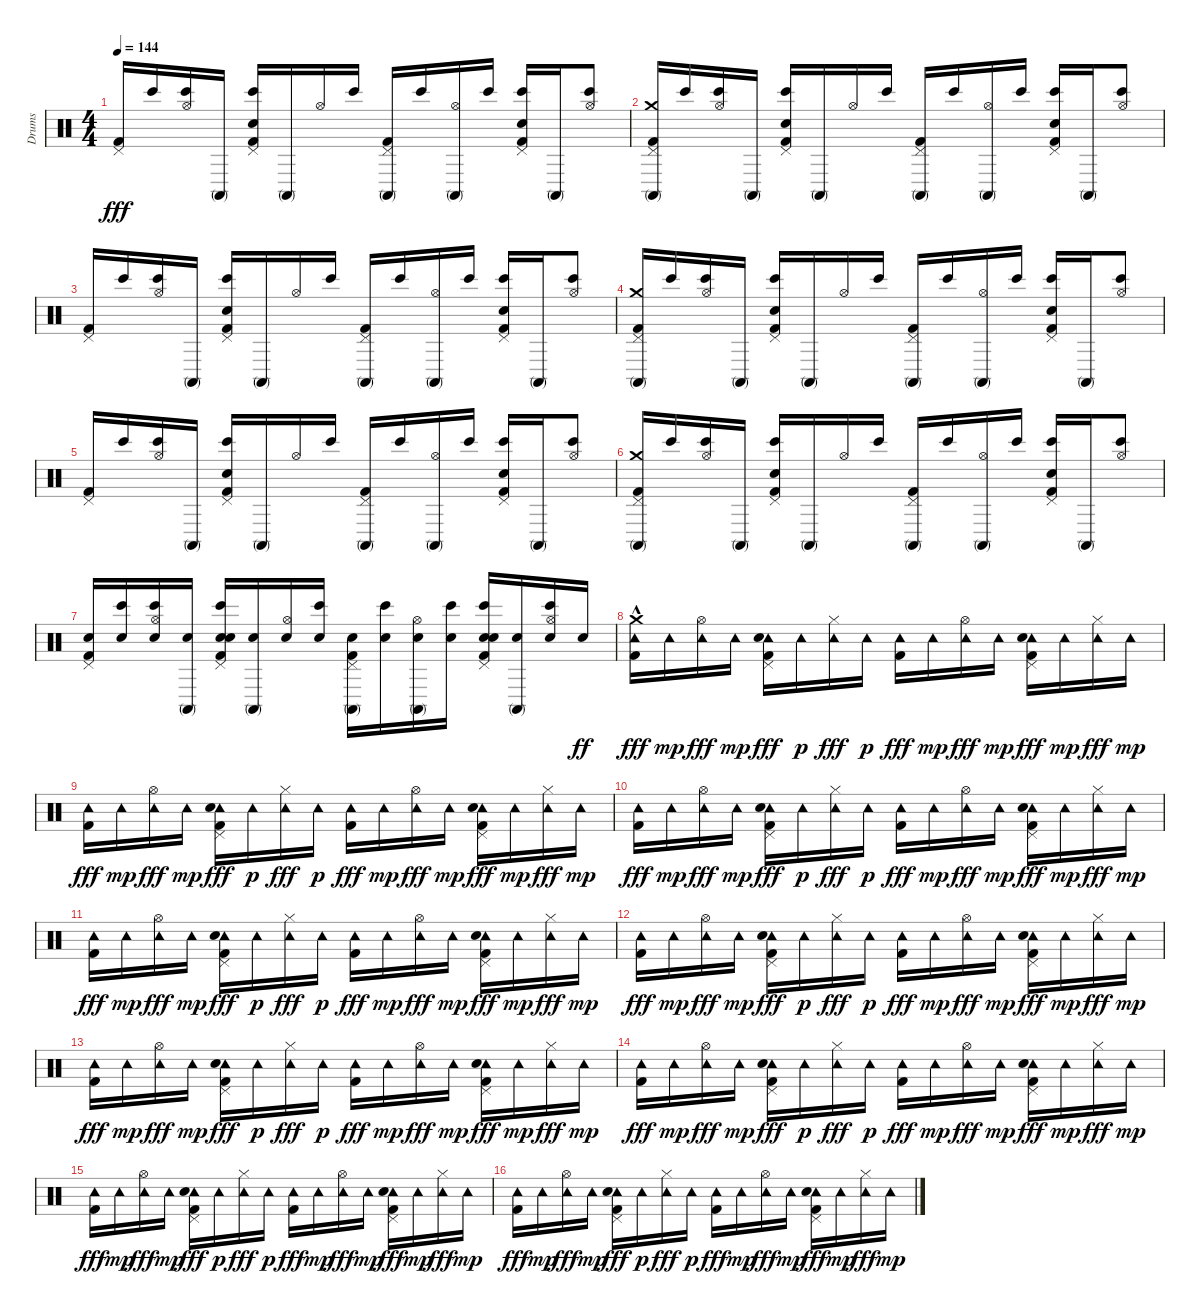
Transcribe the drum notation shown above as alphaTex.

\track ("Drums" "Drums") {instrument percussion}
\staff {score}
\articulation defaults
\ts (4 4)
\tempo 144
\clef neutral
\ks c
("Pedal Hi-Hat (hit)" "Kick (hit) 2").16{dy fff} "Bongo High (hit)".16 ("Hi-Hat (open)" "Bongo High (hit)").16 "Conga high (mute)".16 ("Bongo High (hit)" "Pedal Hi-Hat (hit)" "Kick (hit) 2" "Hand Clap (hit)").16 "Conga high (mute)".16 "Hi-Hat (open)".16 "Bongo High (hit)".16 ("Pedal Hi-Hat (hit)" "Conga high (mute)" "Kick (hit) 2").16 "Bongo High (hit)".16 ("Hi-Hat (open)" "Conga high (mute)").16 "Bongo High (hit)".16 ("Pedal Hi-Hat (hit)" "Bongo High (hit)" "Kick (hit) 2" "Hand Clap (hit)").16 "Conga high (mute)".16 ("Hi-Hat (open)" "Bongo High (hit)").8 |
("Pedal Hi-Hat (hit)" "Conga high (mute)" "Crash medium (hit)" "Kick (hit) 2").16 "Bongo High (hit)".16 ("Bongo High (hit)" "Hi-Hat (open)").16 "Conga high (mute)".16 ("Pedal Hi-Hat (hit)" "Bongo High (hit)" "Kick (hit) 2" "Hand Clap (hit)").16 "Conga high (mute)".16 "Hi-Hat (open)".16 "Bongo High (hit)".16 ("Pedal Hi-Hat (hit)" "Conga high (mute)" "Kick (hit) 2").16 "Bongo High (hit)".16 ("Hi-Hat (open)" "Conga high (mute)").16 "Bongo High (hit)".16 ("Pedal Hi-Hat (hit)" "Bongo High (hit)" "Kick (hit) 2" "Hand Clap (hit)").16 "Conga high (mute)".16 ("Hi-Hat (open)" "Bongo High (hit)").8 |
("Pedal Hi-Hat (hit)" "Kick (hit) 2").16 "Bongo High (hit)".16 ("Hi-Hat (open)" "Bongo High (hit)").16 "Conga high (mute)".16 ("Bongo High (hit)" "Pedal Hi-Hat (hit)" "Kick (hit) 2" "Hand Clap (hit)").16 "Conga high (mute)".16 "Hi-Hat (open)".16 "Bongo High (hit)".16 ("Pedal Hi-Hat (hit)" "Conga high (mute)" "Kick (hit) 2").16 "Bongo High (hit)".16 ("Hi-Hat (open)" "Conga high (mute)").16 "Bongo High (hit)".16 ("Pedal Hi-Hat (hit)" "Bongo High (hit)" "Kick (hit) 2" "Hand Clap (hit)").16 "Conga high (mute)".16 ("Hi-Hat (open)" "Bongo High (hit)").8 |
("Pedal Hi-Hat (hit)" "Conga high (mute)" "Crash medium (hit)" "Kick (hit) 2").16 "Bongo High (hit)".16 ("Bongo High (hit)" "Hi-Hat (open)").16 "Conga high (mute)".16 ("Pedal Hi-Hat (hit)" "Bongo High (hit)" "Kick (hit) 2" "Hand Clap (hit)").16 "Conga high (mute)".16 "Hi-Hat (open)".16 "Bongo High (hit)".16 ("Pedal Hi-Hat (hit)" "Conga high (mute)" "Kick (hit) 2").16 "Bongo High (hit)".16 ("Hi-Hat (open)" "Conga high (mute)").16 "Bongo High (hit)".16 ("Pedal Hi-Hat (hit)" "Bongo High (hit)" "Kick (hit) 2" "Hand Clap (hit)").16 "Conga high (mute)".16 ("Hi-Hat (open)" "Bongo High (hit)").8 |
("Pedal Hi-Hat (hit)" "Kick (hit) 2").16 "Bongo High (hit)".16 ("Hi-Hat (open)" "Bongo High (hit)").16 "Conga high (mute)".16 ("Bongo High (hit)" "Pedal Hi-Hat (hit)" "Kick (hit) 2" "Hand Clap (hit)").16 "Conga high (mute)".16 "Hi-Hat (open)".16 "Bongo High (hit)".16 ("Pedal Hi-Hat (hit)" "Conga high (mute)" "Kick (hit) 2").16 "Bongo High (hit)".16 ("Hi-Hat (open)" "Conga high (mute)").16 "Bongo High (hit)".16 ("Pedal Hi-Hat (hit)" "Bongo High (hit)" "Kick (hit) 2" "Hand Clap (hit)").16 "Conga high (mute)".16 ("Hi-Hat (open)" "Bongo High (hit)").8 |
("Pedal Hi-Hat (hit)" "Conga high (mute)" "Crash medium (hit)" "Kick (hit) 2").16 "Bongo High (hit)".16 ("Bongo High (hit)" "Hi-Hat (open)").16 "Conga high (mute)".16 ("Pedal Hi-Hat (hit)" "Bongo High (hit)" "Kick (hit) 2" "Hand Clap (hit)").16 "Conga high (mute)".16 "Hi-Hat (open)".16 "Bongo High (hit)".16 ("Pedal Hi-Hat (hit)" "Conga high (mute)" "Kick (hit) 2").16 "Bongo High (hit)".16 ("Hi-Hat (open)" "Conga high (mute)").16 "Bongo High (hit)".16 ("Pedal Hi-Hat (hit)" "Bongo High (hit)" "Kick (hit) 2" "Hand Clap (hit)").16 "Conga high (mute)".16 ("Hi-Hat (open)" "Bongo High (hit)").8 |
("Electric Snare (hit)" "Pedal Hi-Hat (hit)" "Kick (hit) 2").16 ("Electric Snare (hit)" "Bongo High (hit)").16 ("Electric Snare (hit)" "Hi-Hat (open)" "Bongo High (hit)").16 ("Electric Snare (hit)" "Conga high (mute)").16 ("Electric Snare (hit)" "Bongo High (hit)" "Pedal Hi-Hat (hit)" "Kick (hit) 2" "Hand Clap (hit)").16 ("Electric Snare (hit)" "Conga high (mute)").16 ("Electric Snare (hit)" "Hi-Hat (open)").16 ("Electric Snare (hit)" "Bongo High (hit)").16 ("Electric Snare (hit)" "Pedal Hi-Hat (hit)" "Conga high (mute)" "Kick (hit) 2").16 ("Electric Snare (hit)" "Bongo High (hit)").16 ("Electric Snare (hit)" "Hi-Hat (open)" "Conga high (mute)").16 ("Electric Snare (hit)" "Bongo High (hit)").16 ("Electric Snare (hit)" "Pedal Hi-Hat (hit)" "Bongo High (hit)" "Kick (hit) 2" "Hand Clap (hit)").16 ("Electric Snare (hit)" "Conga high (mute)").16 ("Electric Snare (hit)" "Hi-Hat (open)" "Bongo High (hit)").16 "Electric Snare (hit)".16{dy ff} |
("Crash medium (hit)"{hac} "Tambourine (hit)" "Kick (hit) 2").16{dy fff} "Tambourine (hit)".16{dy mp} ("Tambourine (hit)" "Hi-Hat (open)").16{dy fff} "Tambourine (hit)".16{dy mp} ("Tambourine (hit)" "Pedal Hi-Hat (hit)" "Kick (hit) 2" "Hand Clap (hit)").16{dy fff} "Tambourine (hit)".16{dy p} ("Tambourine (hit)" "Hi-Hat (closed)").16{dy fff} "Tambourine (hit)".16{dy p} ("Tambourine (hit)" "Kick (hit) 2").16{dy fff} "Tambourine (hit)".16{dy mp} ("Tambourine (hit)" "Hi-Hat (open)").16{dy fff} "Tambourine (hit)".16{dy mp} ("Tambourine (hit)" "Pedal Hi-Hat (hit)" "Kick (hit) 2" "Hand Clap (hit)").16{dy fff} "Tambourine (hit)".16{dy mp} ("Tambourine (hit)" "Hi-Hat (closed)").16{dy fff} "Tambourine (hit)".16{dy mp} |
("Tambourine (hit)" "Kick (hit) 2").16{dy fff} "Tambourine (hit)".16{dy mp} ("Tambourine (hit)" "Hi-Hat (open)").16{dy fff} "Tambourine (hit)".16{dy mp} ("Tambourine (hit)" "Pedal Hi-Hat (hit)" "Kick (hit) 2" "Hand Clap (hit)").16{dy fff} "Tambourine (hit)".16{dy p} ("Tambourine (hit)" "Hi-Hat (closed)").16{dy fff} "Tambourine (hit)".16{dy p} ("Tambourine (hit)" "Kick (hit) 2").16{dy fff} "Tambourine (hit)".16{dy mp} ("Tambourine (hit)" "Hi-Hat (open)").16{dy fff} "Tambourine (hit)".16{dy mp} ("Tambourine (hit)" "Pedal Hi-Hat (hit)" "Kick (hit) 2" "Hand Clap (hit)").16{dy fff} "Tambourine (hit)".16{dy mp} ("Tambourine (hit)" "Hi-Hat (closed)").16{dy fff} "Tambourine (hit)".16{dy mp} |
("Tambourine (hit)" "Kick (hit) 2").16{dy fff} "Tambourine (hit)".16{dy mp} ("Tambourine (hit)" "Hi-Hat (open)").16{dy fff} "Tambourine (hit)".16{dy mp} ("Tambourine (hit)" "Pedal Hi-Hat (hit)" "Kick (hit) 2" "Hand Clap (hit)").16{dy fff} "Tambourine (hit)".16{dy p} ("Tambourine (hit)" "Hi-Hat (closed)").16{dy fff} "Tambourine (hit)".16{dy p} ("Tambourine (hit)" "Kick (hit) 2").16{dy fff} "Tambourine (hit)".16{dy mp} ("Tambourine (hit)" "Hi-Hat (open)").16{dy fff} "Tambourine (hit)".16{dy mp} ("Tambourine (hit)" "Pedal Hi-Hat (hit)" "Kick (hit) 2" "Hand Clap (hit)").16{dy fff} "Tambourine (hit)".16{dy mp} ("Tambourine (hit)" "Hi-Hat (closed)").16{dy fff} "Tambourine (hit)".16{dy mp} |
("Tambourine (hit)" "Kick (hit) 2").16{dy fff} "Tambourine (hit)".16{dy mp} ("Tambourine (hit)" "Hi-Hat (open)").16{dy fff} "Tambourine (hit)".16{dy mp} ("Tambourine (hit)" "Pedal Hi-Hat (hit)" "Kick (hit) 2" "Hand Clap (hit)").16{dy fff} "Tambourine (hit)".16{dy p} ("Tambourine (hit)" "Hi-Hat (closed)").16{dy fff} "Tambourine (hit)".16{dy p} ("Tambourine (hit)" "Kick (hit) 2").16{dy fff} "Tambourine (hit)".16{dy mp} ("Tambourine (hit)" "Hi-Hat (open)").16{dy fff} "Tambourine (hit)".16{dy mp} ("Tambourine (hit)" "Pedal Hi-Hat (hit)" "Kick (hit) 2" "Hand Clap (hit)").16{dy fff} "Tambourine (hit)".16{dy mp} ("Tambourine (hit)" "Hi-Hat (closed)").16{dy fff} "Tambourine (hit)".16{dy mp} |
("Tambourine (hit)" "Kick (hit) 2").16{dy fff} "Tambourine (hit)".16{dy mp} ("Tambourine (hit)" "Hi-Hat (open)").16{dy fff} "Tambourine (hit)".16{dy mp} ("Tambourine (hit)" "Pedal Hi-Hat (hit)" "Kick (hit) 2" "Hand Clap (hit)").16{dy fff} "Tambourine (hit)".16{dy p} ("Tambourine (hit)" "Hi-Hat (closed)").16{dy fff} "Tambourine (hit)".16{dy p} ("Tambourine (hit)" "Kick (hit) 2").16{dy fff} "Tambourine (hit)".16{dy mp} ("Tambourine (hit)" "Hi-Hat (open)").16{dy fff} "Tambourine (hit)".16{dy mp} ("Tambourine (hit)" "Pedal Hi-Hat (hit)" "Kick (hit) 2" "Hand Clap (hit)").16{dy fff} "Tambourine (hit)".16{dy mp} ("Tambourine (hit)" "Hi-Hat (closed)").16{dy fff} "Tambourine (hit)".16{dy mp} |
("Tambourine (hit)" "Kick (hit) 2").16{dy fff} "Tambourine (hit)".16{dy mp} ("Tambourine (hit)" "Hi-Hat (open)").16{dy fff} "Tambourine (hit)".16{dy mp} ("Tambourine (hit)" "Pedal Hi-Hat (hit)" "Kick (hit) 2" "Hand Clap (hit)").16{dy fff} "Tambourine (hit)".16{dy p} ("Tambourine (hit)" "Hi-Hat (closed)").16{dy fff} "Tambourine (hit)".16{dy p} ("Tambourine (hit)" "Kick (hit) 2").16{dy fff} "Tambourine (hit)".16{dy mp} ("Tambourine (hit)" "Hi-Hat (open)").16{dy fff} "Tambourine (hit)".16{dy mp} ("Tambourine (hit)" "Pedal Hi-Hat (hit)" "Kick (hit) 2" "Hand Clap (hit)").16{dy fff} "Tambourine (hit)".16{dy mp} ("Tambourine (hit)" "Hi-Hat (closed)").16{dy fff} "Tambourine (hit)".16{dy mp} |
("Tambourine (hit)" "Kick (hit) 2").16{dy fff} "Tambourine (hit)".16{dy mp} ("Tambourine (hit)" "Hi-Hat (open)").16{dy fff} "Tambourine (hit)".16{dy mp} ("Tambourine (hit)" "Pedal Hi-Hat (hit)" "Kick (hit) 2" "Hand Clap (hit)").16{dy fff} "Tambourine (hit)".16{dy p} ("Tambourine (hit)" "Hi-Hat (closed)").16{dy fff} "Tambourine (hit)".16{dy p} ("Tambourine (hit)" "Kick (hit) 2").16{dy fff} "Tambourine (hit)".16{dy mp} ("Tambourine (hit)" "Hi-Hat (open)").16{dy fff} "Tambourine (hit)".16{dy mp} ("Tambourine (hit)" "Pedal Hi-Hat (hit)" "Kick (hit) 2" "Hand Clap (hit)").16{dy fff} "Tambourine (hit)".16{dy mp} ("Tambourine (hit)" "Hi-Hat (closed)").16{dy fff} "Tambourine (hit)".16{dy mp} |
("Tambourine (hit)" "Kick (hit) 2").16{dy fff} "Tambourine (hit)".16{dy mp} ("Tambourine (hit)" "Hi-Hat (open)").16{dy fff} "Tambourine (hit)".16{dy mp} ("Tambourine (hit)" "Pedal Hi-Hat (hit)" "Kick (hit) 2" "Hand Clap (hit)").16{dy fff} "Tambourine (hit)".16{dy p} ("Tambourine (hit)" "Hi-Hat (closed)").16{dy fff} "Tambourine (hit)".16{dy p} ("Tambourine (hit)" "Kick (hit) 2").16{dy fff} "Tambourine (hit)".16{dy mp} ("Tambourine (hit)" "Hi-Hat (open)").16{dy fff} "Tambourine (hit)".16{dy mp} ("Tambourine (hit)" "Pedal Hi-Hat (hit)" "Kick (hit) 2" "Hand Clap (hit)").16{dy fff} "Tambourine (hit)".16{dy mp} ("Tambourine (hit)" "Hi-Hat (closed)").16{dy fff} "Tambourine (hit)".16{dy mp} |
("Tambourine (hit)" "Kick (hit) 2").16{dy fff} "Tambourine (hit)".16{dy mp} ("Tambourine (hit)" "Hi-Hat (open)").16{dy fff} "Tambourine (hit)".16{dy mp} ("Tambourine (hit)" "Pedal Hi-Hat (hit)" "Kick (hit) 2" "Hand Clap (hit)").16{dy fff} "Tambourine (hit)".16{dy p} ("Tambourine (hit)" "Hi-Hat (closed)").16{dy fff} "Tambourine (hit)".16{dy p} ("Tambourine (hit)" "Kick (hit) 2").16{dy fff} "Tambourine (hit)".16{dy mp} ("Tambourine (hit)" "Hi-Hat (open)").16{dy fff} "Tambourine (hit)".16{dy mp} ("Tambourine (hit)" "Pedal Hi-Hat (hit)" "Kick (hit) 2" "Hand Clap (hit)").16{dy fff} "Tambourine (hit)".16{dy mp} ("Tambourine (hit)" "Hi-Hat (closed)").16{dy fff} "Tambourine (hit)".16{dy mp}
